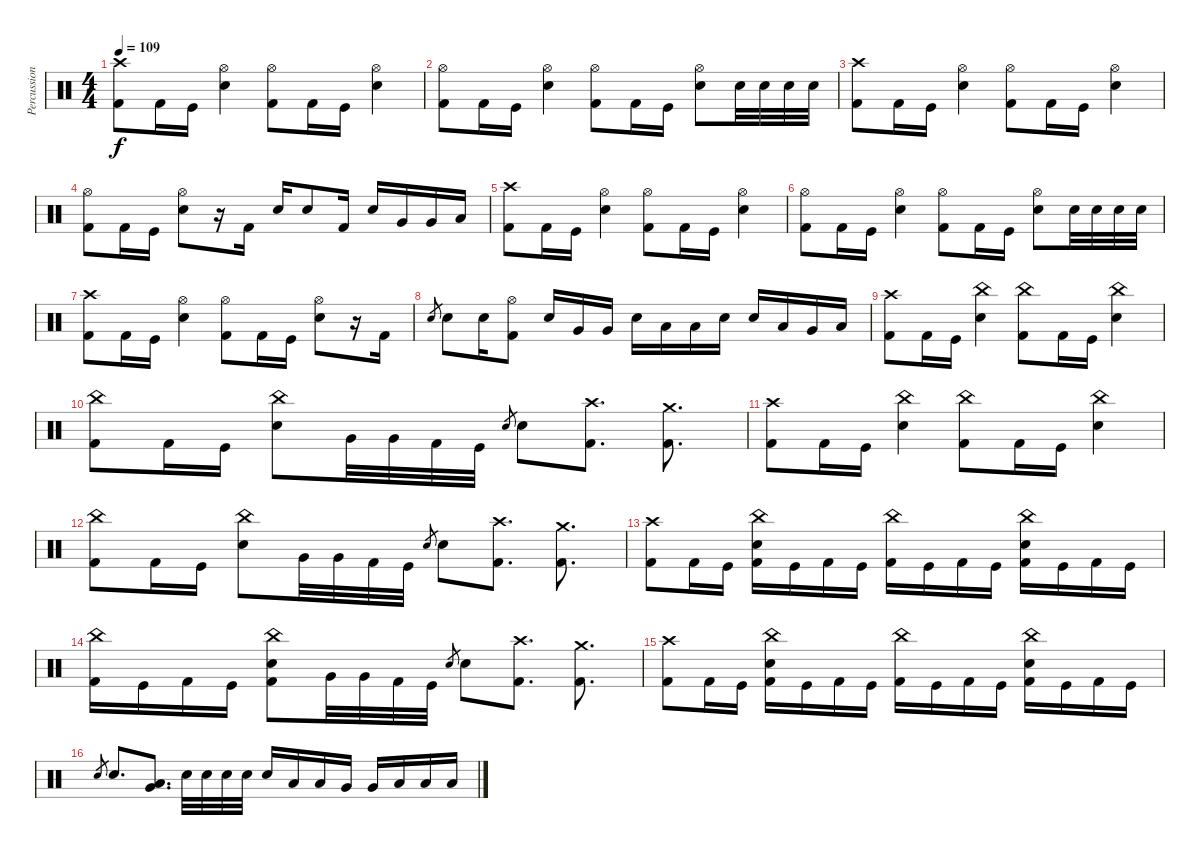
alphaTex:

\track ("Percussion" "Percussion") {instrument percussion}
\staff {score}
\articulation defaults
\ts (4 4)
\tempo 109
\clef neutral
\ks c
("Crash high (hit)" "Kick (hit) 2").8{dy f} "Kick (hit) 2".16 "Kick (hit)".16 ("Hi-Hat (open)" "Electric Snare (hit)").4 ("Hi-Hat (open)" "Kick (hit) 2").8 "Kick (hit) 2".16 "Kick (hit)".16 ("Hi-Hat (open)" "Electric Snare (hit)").4 |
("Hi-Hat (open)" "Kick (hit) 2").8 "Kick (hit) 2".16 "Kick (hit)".16 ("Hi-Hat (open)" "Electric Snare (hit)").4 ("Hi-Hat (open)" "Kick (hit) 2").8 "Kick (hit) 2".16 "Kick (hit)".16 ("Hi-Hat (open)" "Electric Snare (hit)").8 "Electric Snare (hit)".32 "Electric Snare (hit)".32 "Electric Snare (hit)".32 "Electric Snare (hit)".32 |
("Crash high (hit)" "Kick (hit) 2").8 "Kick (hit) 2".16 "Kick (hit)".16 ("Hi-Hat (open)" "Electric Snare (hit)").4 ("Hi-Hat (open)" "Kick (hit) 2").8 "Kick (hit) 2".16 "Kick (hit)".16 ("Hi-Hat (open)" "Electric Snare (hit)").4 |
("Hi-Hat (open)" "Kick (hit) 2").8 "Kick (hit) 2".16 "Kick (hit)".16 ("Hi-Hat (open)" "Electric Snare (hit)").8 r.16 "Kick (hit) 2".16 "Electric Snare (hit)".16 "Electric Snare (hit)".8 "Kick (hit) 2".16 "Electric Snare (hit)".16 "Very Low Tom (hit)".16 "Very Low Tom (hit)".16 "Low Floor Tom (hit)".16 |
("Crash high (hit)" "Kick (hit) 2").8 "Kick (hit) 2".16 "Kick (hit)".16 ("Hi-Hat (open)" "Electric Snare (hit)").4 ("Hi-Hat (open)" "Kick (hit) 2").8 "Kick (hit) 2".16 "Kick (hit)".16 ("Hi-Hat (open)" "Electric Snare (hit)").4 |
("Hi-Hat (open)" "Kick (hit) 2").8 "Kick (hit) 2".16 "Kick (hit)".16 ("Hi-Hat (open)" "Electric Snare (hit)").4 ("Hi-Hat (open)" "Kick (hit) 2").8 "Kick (hit) 2".16 "Kick (hit)".16 ("Hi-Hat (open)" "Electric Snare (hit)").8 "Electric Snare (hit)".32 "Electric Snare (hit)".32 "Electric Snare (hit)".32 "Electric Snare (hit)".32 |
("Crash high (hit)" "Kick (hit) 2").8 "Kick (hit) 2".16 "Kick (hit)".16 ("Hi-Hat (open)" "Electric Snare (hit)").4 ("Hi-Hat (open)" "Kick (hit) 2").8 "Kick (hit) 2".16 "Kick (hit)".16 ("Hi-Hat (open)" "Electric Snare (hit)").8 r.16 "Kick (hit) 2".16 |
"Electric Snare (hit)".8{gr} "Electric Snare (hit)".8 "Electric Snare (hit)".16 ("Hi-Hat (open)" "Kick (hit) 2").8 "Electric Snare (hit)".16 "Very Low Tom (hit)".16 "Very Low Tom (hit)".16 "Electric Snare (hit)".16 "Low Tom (hit)".16 "Low Tom (hit)".16 "Electric Snare (hit)".16 "Electric Snare (hit)".16 "Low Tom (hit)".16 "Very Low Tom (hit)".16 "Low Floor Tom (hit)".16 |
("Crash high (hit)" "Kick (hit) 2").8 "Kick (hit) 2".16 "Kick (hit)".16 ("China (hit)" "Electric Snare (hit)").4 ("China (hit)" "Kick (hit) 2").8 "Kick (hit) 2".16 "Kick (hit)".16 ("China (hit)" "Electric Snare (hit)").4 |
("China (hit)" "Kick (hit) 2").8 "Kick (hit) 2".16 "Kick (hit)".16 ("China (hit)" "Electric Snare (hit)").8 "Very Low Tom (hit)".32 "Very Low Tom (hit)".32 "Kick (hit) 2".32 "Kick (hit)".32 "Electric Snare (hit)".8{gr} "Electric Snare (hit)".8 ("Crash high (hit)" "Kick (hit) 2").8{d} ("Crash medium (hit)" "Kick (hit) 2").8{d} |
("Crash high (hit)" "Kick (hit) 2").8 "Kick (hit) 2".16 "Kick (hit)".16 ("China (hit)" "Electric Snare (hit)").4 ("China (hit)" "Kick (hit) 2").8 "Kick (hit) 2".16 "Kick (hit)".16 ("China (hit)" "Electric Snare (hit)").4 |
("China (hit)" "Kick (hit) 2").8 "Kick (hit) 2".16 "Kick (hit)".16 ("China (hit)" "Electric Snare (hit)").8 "Very Low Tom (hit)".32 "Very Low Tom (hit)".32 "Kick (hit) 2".32 "Kick (hit)".32 "Electric Snare (hit)".8{gr} "Electric Snare (hit)".8 ("Crash high (hit)" "Kick (hit) 2").8{d} ("Crash medium (hit)" "Kick (hit) 2").8{d} |
("Crash high (hit)" "Kick (hit) 2").8 "Kick (hit) 2".16 "Kick (hit)".16 ("China (hit)" "Electric Snare (hit)" "Kick (hit) 2").16 "Kick (hit)".16 "Kick (hit) 2".16 "Kick (hit)".16 ("China (hit)" "Kick (hit) 2").16 "Kick (hit)".16 "Kick (hit) 2".16 "Kick (hit)".16 ("China (hit)" "Electric Snare (hit)" "Kick (hit) 2").16 "Kick (hit)".16 "Kick (hit) 2".16 "Kick (hit)".16 |
("China (hit)" "Kick (hit) 2").16 "Kick (hit)".16 "Kick (hit) 2".16 "Kick (hit)".16 ("China (hit)" "Electric Snare (hit)" "Kick (hit) 2").8 "Very Low Tom (hit)".32 "Very Low Tom (hit)".32 "Kick (hit) 2".32 "Kick (hit)".32 "Electric Snare (hit)".8{gr} "Electric Snare (hit)".8 ("Crash high (hit)" "Kick (hit) 2").8{d} ("Crash medium (hit)" "Kick (hit) 2").8{d} |
("Crash high (hit)" "Kick (hit) 2").8 "Kick (hit) 2".16 "Kick (hit)".16 ("China (hit)" "Electric Snare (hit)" "Kick (hit) 2").16 "Kick (hit)".16 "Kick (hit) 2".16 "Kick (hit)".16 ("China (hit)" "Kick (hit) 2").16 "Kick (hit)".16 "Kick (hit) 2".16 "Kick (hit)".16 ("China (hit)" "Electric Snare (hit)" "Kick (hit) 2").16 "Kick (hit)".16 "Kick (hit) 2".16 "Kick (hit)".16 |
"Electric Snare (hit)".8{gr} "Electric Snare (hit)".8{d} ("Very Low Tom (hit)" "Low Floor Tom (hit)").8{d} "Electric Snare (hit)".32 "Electric Snare (hit)".32 "Electric Snare (hit)".32 "Electric Snare (hit)".32 "Electric Snare (hit)".16 "Low Tom (hit)".16 "Low Tom (hit)".16 "Very Low Tom (hit)".16 "Very Low Tom (hit)".16 "Low Floor Tom (hit)".16 "Low Floor Tom (hit)".16 "Low Floor Tom (hit)".16
